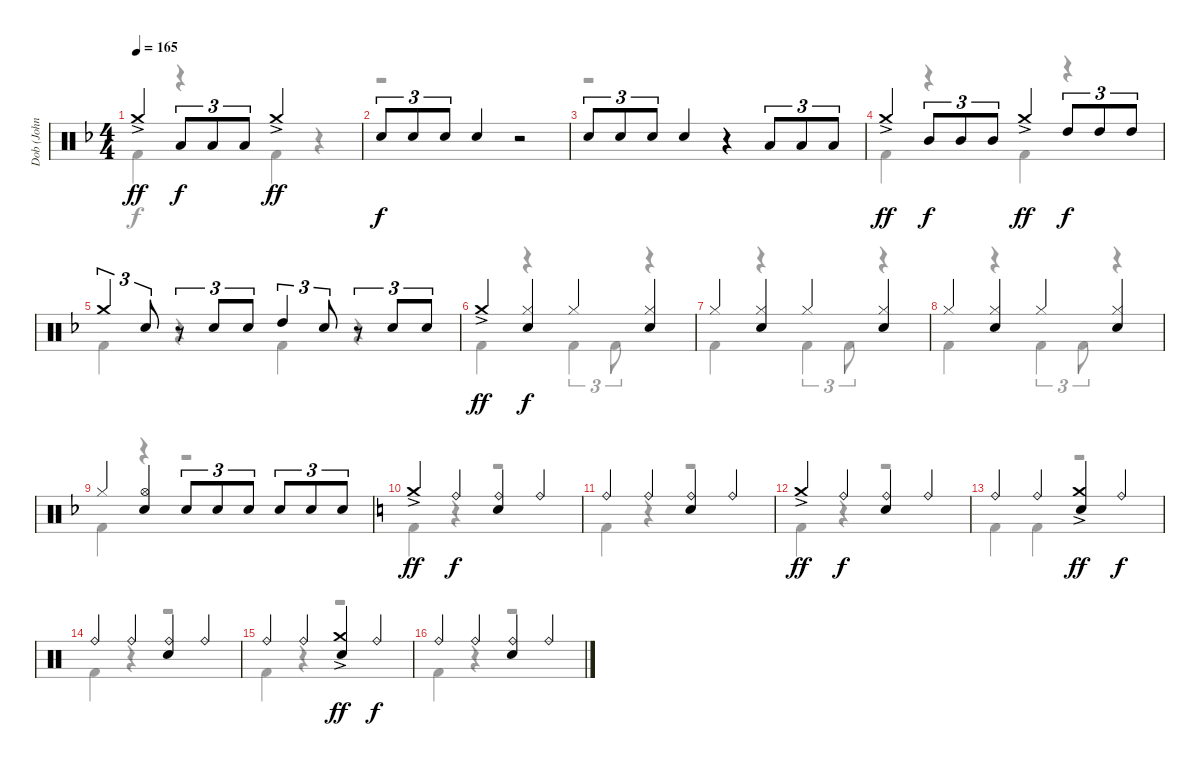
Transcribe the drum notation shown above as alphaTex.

\track ("Dob (John O’Reilly)" "Dob (John ") {instrument percussion}
\staff {score}
\articulation defaults
\voice
\ts (4 4)
\tempo 165
\clef neutral
\ks f "Crash medium (hit)"{ac}.4{dy ff} "Low Tom (hit)".8{tu (3 2) dy f} "Low Tom (hit)".8{tu (3 2)} "Low Tom (hit)".8{tu (3 2)} "Crash medium (hit)"{ac}.2{dy ff}
|
"Electric Snare (hit)".8{tu (3 2) dy f} "Electric Snare (hit)".8{tu (3 2)} "Electric Snare (hit)".8{tu (3 2)} "Electric Snare (hit)".4 r.2 |
"Electric Snare (hit)".8{tu (3 2)} "Electric Snare (hit)".8{tu (3 2)} "Electric Snare (hit)".8{tu (3 2)} "Electric Snare (hit)".4 r.4 "Low Tom (hit)".8{tu (3 2)} "Low Tom (hit)".8{tu (3 2)} "Low Tom (hit)".8{tu (3 2)} |
"Crash medium (hit)"{ac}.4{dy ff} "Mid Tom (hit)".8{tu (3 2) dy f} "Mid Tom (hit)".8{tu (3 2)} "Mid Tom (hit)".8{tu (3 2)} "Crash medium (hit)"{ac}.4{dy ff} "High Tom (hit)".8{tu (3 2) dy f} "High Tom (hit)".8{tu (3 2)} "High Tom (hit)".8{tu (3 2)} |
"Crash medium (hit)".4{tu (3 2)} "Electric Snare (hit)".8{tu (3 2)} r.8{tu (3 2)} "Electric Snare (hit)".8{tu (3 2)} "Electric Snare (hit)".8{tu (3 2)} "High Tom (hit)".4{tu (3 2)} "Electric Snare (hit)".8{tu (3 2)} r.8{tu (3 2)} "Electric Snare (hit)".8{tu (3 2)} "Electric Snare (hit)".8{tu (3 2)} |
"Crash medium (hit)"{ac}.4{dy ff} ("Hi-Hat (closed)" "Electric Snare (hit)").4{dy f} "Hi-Hat (closed)".4 ("Hi-Hat (closed)" "Electric Snare (hit)").4 |
"Hi-Hat (closed)".4 ("Hi-Hat (closed)" "Electric Snare (hit)").4 "Hi-Hat (closed)".4 ("Hi-Hat (closed)" "Electric Snare (hit)").4 |
"Hi-Hat (closed)".4 ("Hi-Hat (closed)" "Electric Snare (hit)").4 "Hi-Hat (closed)".4 ("Hi-Hat (closed)" "Electric Snare (hit)").4 |
"Hi-Hat (closed)".4 ("Hi-Hat (open)" "Electric Snare (hit)").4 "Electric Snare (hit)".8{tu (3 2)} "Electric Snare (hit)".8{tu (3 2)} "Electric Snare (hit)".8{tu (3 2)} "Electric Snare (hit)".8{tu (3 2)} "Electric Snare (hit)".8{tu (3 2)} "Electric Snare (hit)".8{tu (3 2)} |
\ks c "Crash medium (hit)"{ac}.4{dy ff} "Ride (bell)".4{dy f}
("Ride (bell)" "Electric Snare (hit)").4 "Ride (bell)".4 |
"Ride (bell)".4 "Ride (bell)".4 ("Ride (bell)" "Electric Snare (hit)").4 "Ride (bell)".4 |
"Crash medium (hit)"{ac}.4{dy ff} "Ride (bell)".4{dy f} ("Ride (bell)" "Electric Snare (hit)").4 "Ride (bell)".4 |
"Ride (bell)".4 "Ride (bell)".4 ("Crash medium (hit)"{ac} "Electric Snare (hit)").4{dy ff} "Ride (bell)".4{dy f} |
"Ride (bell)".4 "Ride (bell)".4 ("Ride (bell)" "Electric Snare (hit)").4 "Ride (bell)".4 |
"Ride (bell)".4 "Ride (bell)".4 ("Crash medium (hit)"{ac} "Electric Snare (hit)").4{dy ff} "Ride (bell)".4{dy f} |
"Ride (bell)".4 "Ride (bell)".4 ("Ride (bell)" "Electric Snare (hit)").4 "Ride (bell)".4
\voice
\clef neutral
\ottava regular
\simile none
\ks f "Kick (hit) 2".4{dy f}
r.4 "Kick (hit) 2".4 r.4 |
r.1 |
r.1 |
"Kick (hit) 2".4 r.4 "Kick (hit) 2".4 r.4 |
"Kick (hit) 2".4 r.4 "Kick (hit) 2".4 r.4 |
"Kick (hit) 2".4 r.4 "Kick (hit) 2".4{tu (3 2)} "Kick (hit) 2".8{tu (3 2)} r.4 |
"Kick (hit) 2".4 r.4 "Kick (hit) 2".4{tu (3 2)} "Kick (hit) 2".8{tu (3 2)} r.4 |
"Kick (hit) 2".4 r.4 "Kick (hit) 2".4{tu (3 2)} "Kick (hit) 2".8{tu (3 2)} r.4 |
"Kick (hit) 2".4 r.4 r.2 |
\ks c "Kick (hit) 2".4
r.4 r.2 |
"Kick (hit) 2".4 r.4 r.2 |
"Kick (hit) 2".4 r.4 r.2 |
"Kick (hit) 2".4 "Kick (hit) 2".4 r.2 |
"Kick (hit) 2".4 r.4 r.2 |
"Kick (hit) 2".4 r.4 r.2 |
"Kick (hit) 2".4 r.4 r.2
